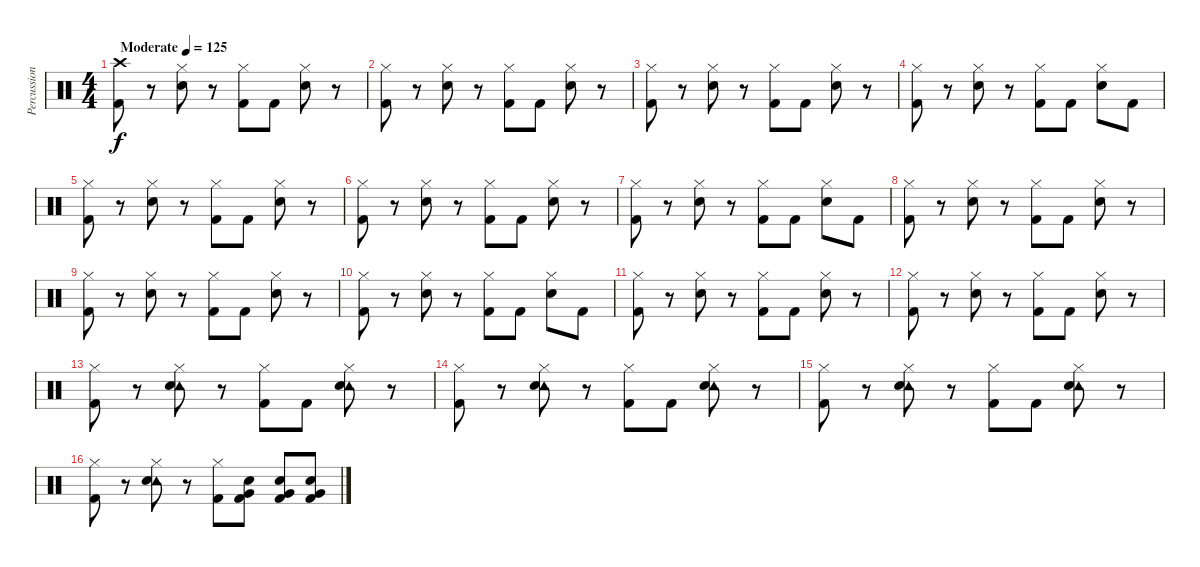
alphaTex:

\track ("Percussion" "Percussion") {instrument percussion}
\staff {score}
\articulation defaults
\ts (4 4)
\tempo (125 "Moderate")
\clef neutral
\ks c
("Crash high (hit)" "Kick (hit) 2").8{dy f} r.8 ("Hi-Hat (closed)" "Electric Snare (hit)").8 r.8 ("Hi-Hat (closed)" "Kick (hit) 2").8 "Kick (hit) 2".8 ("Hi-Hat (closed)" "Electric Snare (hit)").8 r.8 |
("Hi-Hat (closed)" "Kick (hit) 2").8 r.8 ("Hi-Hat (closed)" "Electric Snare (hit)").8 r.8 ("Hi-Hat (closed)" "Kick (hit) 2").8 "Kick (hit) 2".8 ("Hi-Hat (closed)" "Electric Snare (hit)").8 r.8 |
("Hi-Hat (closed)" "Kick (hit) 2").8 r.8 ("Hi-Hat (closed)" "Electric Snare (hit)").8 r.8 ("Hi-Hat (closed)" "Kick (hit) 2").8 "Kick (hit) 2".8 ("Hi-Hat (closed)" "Electric Snare (hit)").8 r.8 |
("Hi-Hat (closed)" "Kick (hit) 2").8 r.8 ("Hi-Hat (closed)" "Electric Snare (hit)").8 r.8 ("Hi-Hat (closed)" "Kick (hit) 2").8 "Kick (hit) 2".8 ("Hi-Hat (closed)" "Electric Snare (hit)").8 "Kick (hit) 2".8 |
("Hi-Hat (closed)" "Kick (hit) 2").8 r.8 ("Hi-Hat (closed)" "Electric Snare (hit)").8 r.8 ("Hi-Hat (closed)" "Kick (hit) 2").8 "Kick (hit) 2".8 ("Hi-Hat (closed)" "Electric Snare (hit)").8 r.8 |
("Hi-Hat (closed)" "Kick (hit) 2").8 r.8 ("Hi-Hat (closed)" "Electric Snare (hit)").8 r.8 ("Hi-Hat (closed)" "Kick (hit) 2").8 "Kick (hit) 2".8 ("Hi-Hat (closed)" "Electric Snare (hit)").8 r.8 |
("Hi-Hat (closed)" "Kick (hit) 2").8 r.8 ("Hi-Hat (closed)" "Electric Snare (hit)").8 r.8 ("Hi-Hat (closed)" "Kick (hit) 2").8 "Kick (hit) 2".8 ("Hi-Hat (closed)" "Electric Snare (hit)").8 "Kick (hit) 2".8 |
("Hi-Hat (closed)" "Kick (hit) 2").8 r.8 ("Hi-Hat (closed)" "Electric Snare (hit)").8 r.8 ("Hi-Hat (closed)" "Kick (hit) 2").8 "Kick (hit) 2".8 ("Hi-Hat (closed)" "Electric Snare (hit)").8 r.8 |
("Hi-Hat (closed)" "Kick (hit) 2").8 r.8 ("Hi-Hat (closed)" "Electric Snare (hit)").8 r.8 ("Hi-Hat (closed)" "Kick (hit) 2").8 "Kick (hit) 2".8 ("Hi-Hat (closed)" "Electric Snare (hit)").8 r.8 |
("Hi-Hat (closed)" "Kick (hit) 2").8 r.8 ("Hi-Hat (closed)" "Electric Snare (hit)").8 r.8 ("Hi-Hat (closed)" "Kick (hit) 2").8 "Kick (hit) 2".8 ("Hi-Hat (closed)" "Electric Snare (hit)").8 "Kick (hit) 2".8 |
("Hi-Hat (closed)" "Kick (hit) 2").8 r.8 ("Hi-Hat (closed)" "Electric Snare (hit)").8 r.8 ("Hi-Hat (closed)" "Kick (hit) 2").8 "Kick (hit) 2".8 ("Hi-Hat (closed)" "Electric Snare (hit)").8 r.8 |
("Hi-Hat (closed)" "Kick (hit) 2").8 r.8 ("Hi-Hat (closed)" "Electric Snare (hit)").8 r.8 ("Hi-Hat (closed)" "Kick (hit) 2").8 "Kick (hit) 2".8 ("Hi-Hat (closed)" "Electric Snare (hit)").8 r.8 |
("Hi-Hat (closed)" "Kick (hit) 2").8 r.8 ("Tambourine (hit)" "Hi-Hat (closed)" "Electric Snare (hit)").8 r.8 ("Hi-Hat (closed)" "Kick (hit) 2").8 "Kick (hit) 2".8 ("Tambourine (hit)" "Hi-Hat (closed)" "Electric Snare (hit)").8 r.8 |
("Hi-Hat (closed)" "Kick (hit) 2").8 r.8 ("Tambourine (hit)" "Hi-Hat (closed)" "Electric Snare (hit)").8 r.8 ("Hi-Hat (closed)" "Kick (hit) 2").8 "Kick (hit) 2".8 ("Tambourine (hit)" "Hi-Hat (closed)" "Electric Snare (hit)").8 r.8 |
("Hi-Hat (closed)" "Kick (hit) 2").8 r.8 ("Tambourine (hit)" "Hi-Hat (closed)" "Electric Snare (hit)").8 r.8 ("Hi-Hat (closed)" "Kick (hit) 2").8 "Kick (hit) 2".8 ("Tambourine (hit)" "Hi-Hat (closed)" "Electric Snare (hit)").8 r.8 |
("Hi-Hat (closed)" "Kick (hit) 2").8 r.8 ("Tambourine (hit)" "Hi-Hat (closed)" "Electric Snare (hit)").8 r.8 ("Hi-Hat (closed)" "Kick (hit) 2").8 ("Very Low Tom (hit)" "Electric Snare (hit)" "Kick (hit) 2").8 ("Very Low Tom (hit)" "Electric Snare (hit)" "Kick (hit) 2").8 ("Very Low Tom (hit)" "Electric Snare (hit)" "Kick (hit) 2").8
